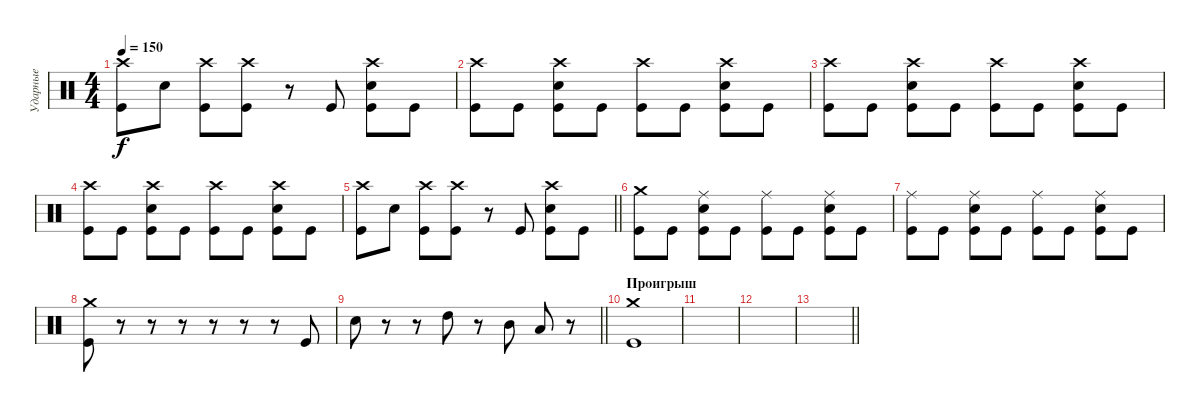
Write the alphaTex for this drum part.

\track ("Ударные" "Ударные") {instrument percussion}
\staff {score}
\articulation defaults
\ts (4 4)
\tempo 150
\clef neutral
\ks c
("Crash high (hit)" "Kick (hit)").8{dy f} "Electric Snare (hit)".8 ("Crash high (hit)" "Kick (hit)").8 ("Crash high (hit)" "Kick (hit)").8 r.8 "Kick (hit)".8 ("Crash high (hit)" "Electric Snare (hit)" "Kick (hit)").8 "Kick (hit)".8 |
("Crash high (hit)" "Kick (hit)").8 "Kick (hit)".8 ("Crash high (hit)" "Electric Snare (hit)" "Kick (hit)").8 "Kick (hit)".8 ("Crash high (hit)" "Kick (hit)").8 "Kick (hit)".8 ("Crash high (hit)" "Electric Snare (hit)" "Kick (hit)").8 "Kick (hit)".8 |
("Crash high (hit)" "Kick (hit)").8 "Kick (hit)".8 ("Crash high (hit)" "Electric Snare (hit)" "Kick (hit)").8 "Kick (hit)".8 ("Crash high (hit)" "Kick (hit)").8 "Kick (hit)".8 ("Crash high (hit)" "Electric Snare (hit)" "Kick (hit)").8 "Kick (hit)".8 |
("Crash high (hit)" "Kick (hit)").8 "Kick (hit)".8 ("Crash high (hit)" "Electric Snare (hit)" "Kick (hit)").8 "Kick (hit)".8 ("Crash high (hit)" "Kick (hit)").8 "Kick (hit)".8 ("Crash high (hit)" "Electric Snare (hit)" "Kick (hit)").8 "Kick (hit)".8 |
\barLineRight lightlight
("Crash high (hit)" "Kick (hit)").8 "Electric Snare (hit)".8 ("Crash high (hit)" "Kick (hit)").8 ("Crash high (hit)" "Kick (hit)").8 r.8 "Kick (hit)".8 ("Crash high (hit)" "Electric Snare (hit)" "Kick (hit)").8 "Kick (hit)".8 |
("Crash medium (hit)" "Kick (hit)").8 "Kick (hit)".8 ("Ride (middle)" "Electric Snare (hit)" "Kick (hit)").8 "Kick (hit)".8 ("Ride (middle)" "Kick (hit)").8 "Kick (hit)".8 ("Ride (middle)" "Electric Snare (hit)" "Kick (hit)").8 "Kick (hit)".8 |
("Ride (middle)" "Kick (hit)").8 "Kick (hit)".8 ("Ride (middle)" "Electric Snare (hit)" "Kick (hit)").8 "Kick (hit)".8 ("Ride (middle)" "Kick (hit)").8 "Kick (hit)".8 ("Ride (middle)" "Electric Snare (hit)" "Kick (hit)").8 "Kick (hit)".8 |
("Crash medium (hit)" "Kick (hit)").8 r.8 r.8 r.8 r.8 r.8 r.8 "Kick (hit)".8 |
\barLineRight lightlight "Electric Snare (hit)".8
r.8 r.8 "High Tom (hit)".8 r.8 "Mid Tom (hit)".8 "Low Tom (hit)".8 r.8 |
\section ("" "Проигрыш")
("Crash medium (hit)" "Kick (hit)").1 |
|
|
\barLineRight lightlight
